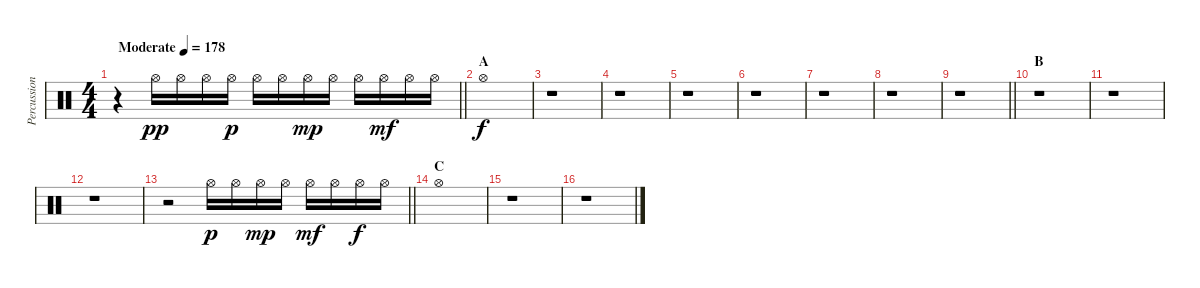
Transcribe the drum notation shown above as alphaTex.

\track ("Percussion" "Percussion") {instrument percussion}
\staff {score}
\articulation defaults
\ts (4 4)
\tempo (178 "Moderate")
\clef neutral
\barLineRight lightlight
\ks c
r.4{dy pp} "Hi-Hat (open)".16 "Hi-Hat (open)".16 "Hi-Hat (open)".16 "Hi-Hat (open)".16{dy p} "Hi-Hat (open)".16 "Hi-Hat (open)".16 "Hi-Hat (open)".16{dy mp} "Hi-Hat (open)".16 "Hi-Hat (open)".16 "Hi-Hat (open)".16{dy mf} "Hi-Hat (open)".16 "Hi-Hat (open)".16 |
\section ("" "A")
"Hi-Hat (open)".1{dy f} |
r.1 |
r.1 |
r.1 |
r.1 |
r.1 |
r.1 |
\barLineRight lightlight
r.1 |
\section ("" "B")
r.1 |
r.1 |
r.1 |
\barLineRight lightlight
r.2 "Hi-Hat (open)".16{dy p} "Hi-Hat (open)".16 "Hi-Hat (open)".16{dy mp} "Hi-Hat (open)".16 "Hi-Hat (open)".16{dy mf} "Hi-Hat (open)".16 "Hi-Hat (open)".16{dy f} "Hi-Hat (open)".16 |
\section ("" "C")
"Hi-Hat (open)".1 |
r.1 |
r.1
